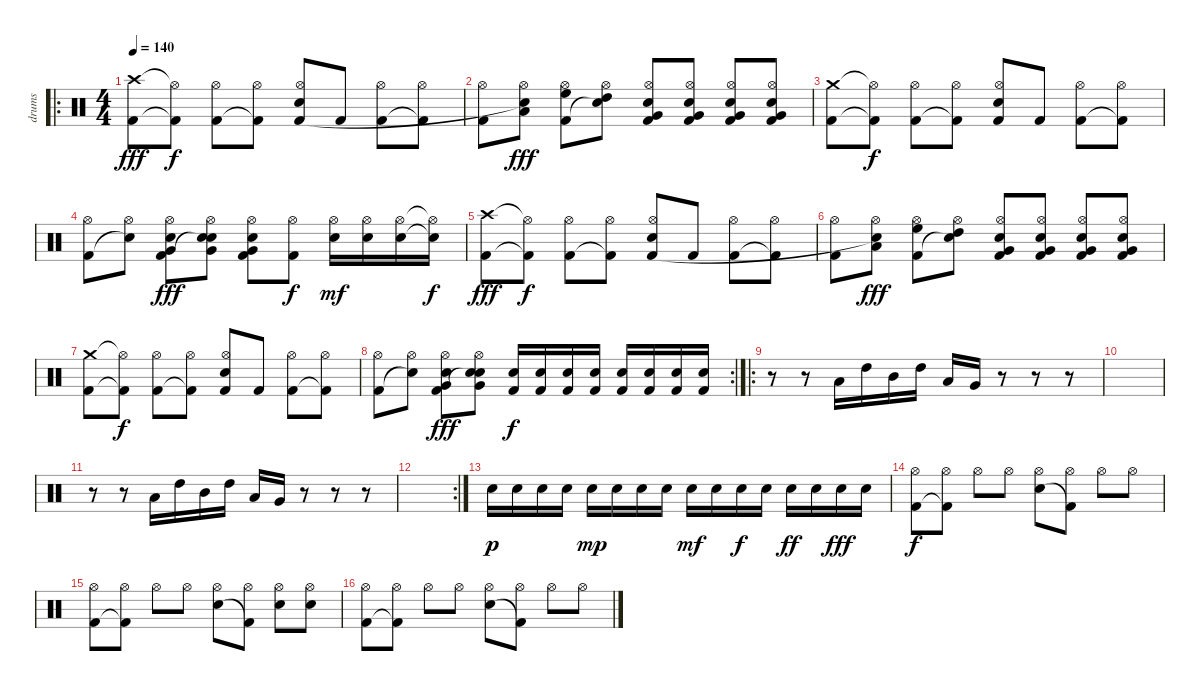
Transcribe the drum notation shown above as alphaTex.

\track ("drums" "drums") {instrument percussion}
\staff {score}
\articulation defaults
\ro
\ts (4 4)
\tempo 140
\clef neutral
\ks c
("Crash high (hit)" "Kick (hit) 2").8{dy fff} ("Hi-Hat (open)"{t} "Kick (hit) 2"{t}).8{dy f} ("Hi-Hat (open)" "Kick (hit) 2").8 ("Hi-Hat (open)" "Kick (hit) 2"{t}).8 ("Hi-Hat (open)" "Electric Snare (hit)" "Kick (hit) 2").8 "Kick (hit) 2".8 ("Hi-Hat (open)" "Kick (hit) 2").8 ("Hi-Hat (open)" "Kick (hit) 2"{t}).8 |
("Hi-Hat (open)" "Kick (hit) 2").8 ("Hi-Hat (open)" "Low Tom (hit)" "Snare (hit)"{t}).8{dy fff} ("Hi-Hat (open)" "High Floor Tom (hit)" "Kick (hit) 2").8 ("Hi-Hat (open)" "High Tom (hit)" "Snare (hit)"{t}).8 ("Hi-Hat (open)" "Very Low Tom (hit)" "Electric Snare (hit)" "Kick (hit) 2").8 ("Hi-Hat (open)" "Very Low Tom (hit)" "Electric Snare (hit)" "Kick (hit) 2").8 ("Hi-Hat (open)" "Very Low Tom (hit)" "Electric Snare (hit)" "Kick (hit) 2").8 ("Hi-Hat (open)" "Very Low Tom (hit)" "Electric Snare (hit)" "Kick (hit) 2").8 |
("Crash medium (hit)" "Kick (hit) 2").8 ("Hi-Hat (open)"{t} "Kick (hit) 2"{t}).8{dy f} ("Hi-Hat (open)" "Kick (hit) 2").8 ("Hi-Hat (open)" "Kick (hit) 2"{t}).8 ("Hi-Hat (open)" "Electric Snare (hit)" "Kick (hit) 2").8 "Kick (hit) 2".8 ("Hi-Hat (open)" "Kick (hit) 2").8 ("Hi-Hat (open)" "Kick (hit) 2"{t}).8 |
("Hi-Hat (open)" "Kick (hit) 2").8 ("Hi-Hat (open)" "Snare (hit)"{t}).8 ("Hi-Hat (open)" "Very Low Tom (hit)" "Electric Snare (hit)" "Kick (hit) 2").8{dy fff} ("Hi-Hat (open)" "Very Low Tom (hit)" "Electric Snare (hit)" "Snare (hit)"{t}).8 ("Hi-Hat (open)" "Very Low Tom (hit)" "Electric Snare (hit)" "Kick (hit) 2").8 ("Hi-Hat (open)" "Kick (hit) 2").8{dy f} ("Hi-Hat (open)" "Electric Snare (hit)").16{dy mf} ("Hi-Hat (open)" "Electric Snare (hit)").16 ("Hi-Hat (open)" "Electric Snare (hit)").16 ("Hi-Hat (open)"{t} "Electric Snare (hit)"{t}).16{dy f} |
("Crash high (hit)" "Kick (hit) 2").8{dy fff} ("Hi-Hat (open)"{t} "Kick (hit) 2"{t}).8{dy f} ("Hi-Hat (open)" "Kick (hit) 2").8 ("Hi-Hat (open)" "Kick (hit) 2"{t}).8 ("Hi-Hat (open)" "Electric Snare (hit)" "Kick (hit) 2").8 "Kick (hit) 2".8 ("Hi-Hat (open)" "Kick (hit) 2").8 ("Hi-Hat (open)" "Kick (hit) 2"{t}).8 |
("Hi-Hat (open)" "Kick (hit) 2").8 ("Hi-Hat (open)" "Low Tom (hit)" "Snare (hit)"{t}).8{dy fff} ("Hi-Hat (open)" "High Floor Tom (hit)" "Kick (hit) 2").8 ("Hi-Hat (open)" "High Tom (hit)" "Snare (hit)"{t}).8 ("Hi-Hat (open)" "Very Low Tom (hit)" "Electric Snare (hit)" "Kick (hit) 2").8 ("Hi-Hat (open)" "Very Low Tom (hit)" "Electric Snare (hit)" "Kick (hit) 2").8 ("Hi-Hat (open)" "Very Low Tom (hit)" "Electric Snare (hit)" "Kick (hit) 2").8 ("Hi-Hat (open)" "Very Low Tom (hit)" "Electric Snare (hit)" "Kick (hit) 2").8 |
("Crash medium (hit)" "Kick (hit) 2").8 ("Hi-Hat (open)"{t} "Kick (hit) 2"{t}).8{dy f} ("Hi-Hat (open)" "Kick (hit) 2").8 ("Hi-Hat (open)" "Kick (hit) 2"{t}).8 ("Hi-Hat (open)" "Electric Snare (hit)" "Kick (hit) 2").8 "Kick (hit) 2".8 ("Hi-Hat (open)" "Kick (hit) 2").8 ("Hi-Hat (open)" "Kick (hit) 2"{t}).8 |
\rc 2
("Hi-Hat (open)" "Kick (hit) 2").8 ("Hi-Hat (open)" "Snare (hit)"{t}).8 ("Hi-Hat (open)" "Very Low Tom (hit)" "Electric Snare (hit)" "Kick (hit) 2").8{dy fff} ("Hi-Hat (open)" "Very Low Tom (hit)" "Electric Snare (hit)" "Snare (hit)"{t}).8 ("Electric Snare (hit)" "Kick (hit) 2").16{dy f} ("Electric Snare (hit)" "Kick (hit) 2").16 ("Electric Snare (hit)" "Kick (hit) 2").16 ("Electric Snare (hit)" "Kick (hit) 2").16 ("Electric Snare (hit)" "Kick (hit) 2").16 ("Electric Snare (hit)" "Kick (hit) 2").16 ("Electric Snare (hit)" "Kick (hit) 2").16 ("Electric Snare (hit)" "Kick (hit) 2").16 |
\ro
r.8 r.8 "Low Tom (hit)".16 "High Tom (hit)".16 "Mid Tom (hit)".16 "High Tom (hit)".16 "Low Tom (hit)".16 "Very Low Tom (hit)".16 r.8 r.8 r.8 |
|
r.8 r.8 "Low Tom (hit)".16 "High Tom (hit)".16 "Mid Tom (hit)".16 "High Tom (hit)".16 "Low Tom (hit)".16 "Very Low Tom (hit)".16 r.8 r.8 r.8 |
\rc 2
|
"Snare (hit) 2".16{dy p} "Snare (hit) 2".16 "Snare (hit) 2".16 "Snare (hit) 2".16 "Snare (hit) 2".16{dy mp} "Snare (hit) 2".16 "Snare (hit) 2".16 "Snare (hit) 2".16 "Snare (hit) 2".16{dy mf} "Snare (hit) 2".16 "Snare (hit) 2".16{dy f} "Snare (hit) 2".16 "Snare (hit) 2".16{dy ff} "Snare (hit) 2".16 "Snare (hit) 2".16{dy fff} "Snare (hit) 2".16 |
("Hi-Hat (open)" "Kick (hit) 2").8{dy f volume 11} ("Hi-Hat (open)" "Kick (hit) 2"{t}).8 "Hi-Hat (open)".8 "Hi-Hat (open)".8 ("Hi-Hat (open)" "Snare (hit) 2").8 ("Hi-Hat (open)" "Kick (hit) 2"{t}).8 "Hi-Hat (open)".8 "Hi-Hat (open)".8 |
("Hi-Hat (open)" "Kick (hit) 2").8 ("Hi-Hat (open)" "Kick (hit) 2"{t}).8 "Hi-Hat (open)".8 "Hi-Hat (open)".8 ("Hi-Hat (open)" "Snare (hit) 2").8 ("Hi-Hat (open)" "Kick (hit) 2"{t}).8 ("Hi-Hat (open)" "Snare (hit) 2").8 ("Hi-Hat (open)" "Snare (hit) 2").8 |
("Hi-Hat (open)" "Kick (hit) 2").8 ("Hi-Hat (open)" "Kick (hit) 2"{t}).8 "Hi-Hat (open)".8 "Hi-Hat (open)".8 ("Hi-Hat (open)" "Snare (hit) 2").8 ("Hi-Hat (open)" "Kick (hit) 2"{t}).8 "Hi-Hat (open)".8 "Hi-Hat (open)".8
